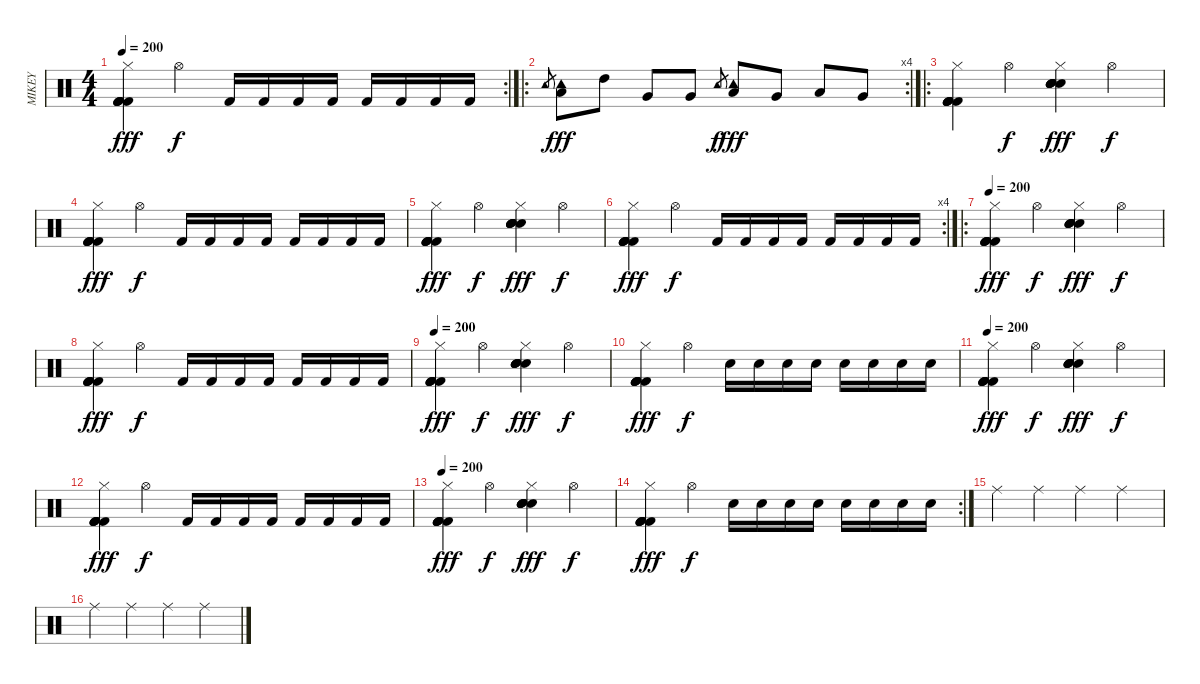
\track ("MIKEY" "MIKEY") {instrument percussion}
\staff {score}
\articulation defaults
\rc 2
\ts (4 4)
\tempo 200
\clef neutral
\ks c
("Kick (hit) 2" "Kick (hit) 2" "Kick (hit) 2" "Kick (hit) 2" "Kick (hit) 2" "Hi-Hat (closed)").4{dy fff} "Hi-Hat (open)".4{dy f} "Kick (hit) 2".16 "Kick (hit) 2".16 "Kick (hit) 2".16 "Kick (hit) 2".16 "Kick (hit) 2".16 "Kick (hit) 2".16 "Kick (hit) 2".16 "Kick (hit) 2".16 |
\ro
\rc 4 "Tambourine (hit)".8{gr}
("Tambourine (hit)" "Low Tom (hit)").8{dy fff} "High Tom (hit)".8 "Very Low Tom (hit)".8 "Very Low Tom (hit)".8 "Tambourine (hit)".8{gr dy f} ("Tambourine (hit)" "Low Tom (hit)").8{dy fff} "Very Low Tom (hit)".8 "Low Floor Tom (hit)".8 "Very Low Tom (hit)".8 |
\ro
("Kick (hit) 2" "Kick (hit) 2" "Kick (hit) 2" "Kick (hit) 2" "Kick (hit) 2" "Hi-Hat (closed)").4 "Hi-Hat (open)".4{dy f} ("Snare (hit) 2" "Snare (hit) 2" "Snare (hit) 2" "Snare (hit) 2" "Snare (hit) 2" "Hi-Hat (closed)").4{dy fff} "Hi-Hat (open)".4{dy f} |
("Kick (hit) 2" "Kick (hit) 2" "Kick (hit) 2" "Kick (hit) 2" "Kick (hit) 2" "Hi-Hat (closed)").4{dy fff} "Hi-Hat (open)".4{dy f} "Kick (hit) 2".16 "Kick (hit) 2".16 "Kick (hit) 2".16 "Kick (hit) 2".16 "Kick (hit) 2".16 "Kick (hit) 2".16 "Kick (hit) 2".16 "Kick (hit) 2".16 |
("Kick (hit) 2" "Kick (hit) 2" "Kick (hit) 2" "Kick (hit) 2" "Kick (hit) 2" "Hi-Hat (closed)").4{dy fff} "Hi-Hat (open)".4{dy f} ("Snare (hit) 2" "Snare (hit) 2" "Snare (hit) 2" "Snare (hit) 2" "Snare (hit) 2" "Hi-Hat (closed)").4{dy fff} "Hi-Hat (open)".4{dy f} |
\rc 4
("Kick (hit) 2" "Kick (hit) 2" "Kick (hit) 2" "Kick (hit) 2" "Kick (hit) 2" "Hi-Hat (closed)").4{dy fff} "Hi-Hat (open)".4{dy f} "Kick (hit) 2".16 "Kick (hit) 2".16 "Kick (hit) 2".16 "Kick (hit) 2".16 "Kick (hit) 2".16 "Kick (hit) 2".16 "Kick (hit) 2".16 "Kick (hit) 2".16 |
\ro
\tempo 200
("Kick (hit) 2" "Kick (hit) 2" "Kick (hit) 2" "Kick (hit) 2" "Kick (hit) 2" "Hi-Hat (closed)").4{dy fff} "Hi-Hat (open)".4{dy f} ("Snare (hit) 2" "Snare (hit) 2" "Snare (hit) 2" "Snare (hit) 2" "Snare (hit) 2" "Hi-Hat (closed)").4{dy fff} "Hi-Hat (open)".4{dy f} |
("Kick (hit) 2" "Kick (hit) 2" "Kick (hit) 2" "Kick (hit) 2" "Kick (hit) 2" "Hi-Hat (closed)").4{dy fff} "Hi-Hat (open)".4{dy f} "Kick (hit) 2".16 "Kick (hit) 2".16 "Kick (hit) 2".16 "Kick (hit) 2".16 "Kick (hit) 2".16 "Kick (hit) 2".16 "Kick (hit) 2".16 "Kick (hit) 2".16 |
\tempo 200
("Kick (hit) 2" "Kick (hit) 2" "Kick (hit) 2" "Kick (hit) 2" "Kick (hit) 2" "Hi-Hat (closed)").4{dy fff} "Hi-Hat (open)".4{dy f} ("Snare (hit) 2" "Snare (hit) 2" "Snare (hit) 2" "Snare (hit) 2" "Snare (hit) 2" "Hi-Hat (closed)").4{dy fff} "Hi-Hat (open)".4{dy f} |
("Kick (hit) 2" "Kick (hit) 2" "Kick (hit) 2" "Kick (hit) 2" "Kick (hit) 2" "Hi-Hat (closed)").4{dy fff} "Hi-Hat (open)".4{dy f} "Electric Snare (hit)".16 "Electric Snare (hit)".16 "Electric Snare (hit)".16 "Electric Snare (hit)".16 "Electric Snare (hit)".16 "Electric Snare (hit)".16 "Electric Snare (hit)".16 "Electric Snare (hit)".16 |
\tempo 200
("Kick (hit) 2" "Kick (hit) 2" "Kick (hit) 2" "Kick (hit) 2" "Kick (hit) 2" "Hi-Hat (closed)").4{dy fff} "Hi-Hat (open)".4{dy f} ("Snare (hit) 2" "Snare (hit) 2" "Snare (hit) 2" "Snare (hit) 2" "Snare (hit) 2" "Hi-Hat (closed)").4{dy fff} "Hi-Hat (open)".4{dy f} |
("Kick (hit) 2" "Kick (hit) 2" "Kick (hit) 2" "Kick (hit) 2" "Kick (hit) 2" "Hi-Hat (closed)").4{dy fff} "Hi-Hat (open)".4{dy f} "Kick (hit) 2".16 "Kick (hit) 2".16 "Kick (hit) 2".16 "Kick (hit) 2".16 "Kick (hit) 2".16 "Kick (hit) 2".16 "Kick (hit) 2".16 "Kick (hit) 2".16 |
\tempo 200
("Kick (hit) 2" "Kick (hit) 2" "Kick (hit) 2" "Kick (hit) 2" "Kick (hit) 2" "Hi-Hat (closed)").4{dy fff} "Hi-Hat (open)".4{dy f} ("Snare (hit) 2" "Snare (hit) 2" "Snare (hit) 2" "Snare (hit) 2" "Snare (hit) 2" "Hi-Hat (closed)").4{dy fff} "Hi-Hat (open)".4{dy f} |
\rc 2
("Kick (hit) 2" "Kick (hit) 2" "Kick (hit) 2" "Kick (hit) 2" "Kick (hit) 2" "Hi-Hat (closed)").4{dy fff} "Hi-Hat (open)".4{dy f} "Electric Snare (hit)".16 "Electric Snare (hit)".16 "Electric Snare (hit)".16 "Electric Snare (hit)".16 "Electric Snare (hit)".16 "Electric Snare (hit)".16 "Electric Snare (hit)".16 "Electric Snare (hit)".16 |
"Ride (middle)".4 "Ride (middle)".4 "Ride (middle)".4 "Ride (middle)".4 |
"Ride (middle)".4 "Ride (middle)".4 "Ride (middle)".4 "Ride (middle)".4
